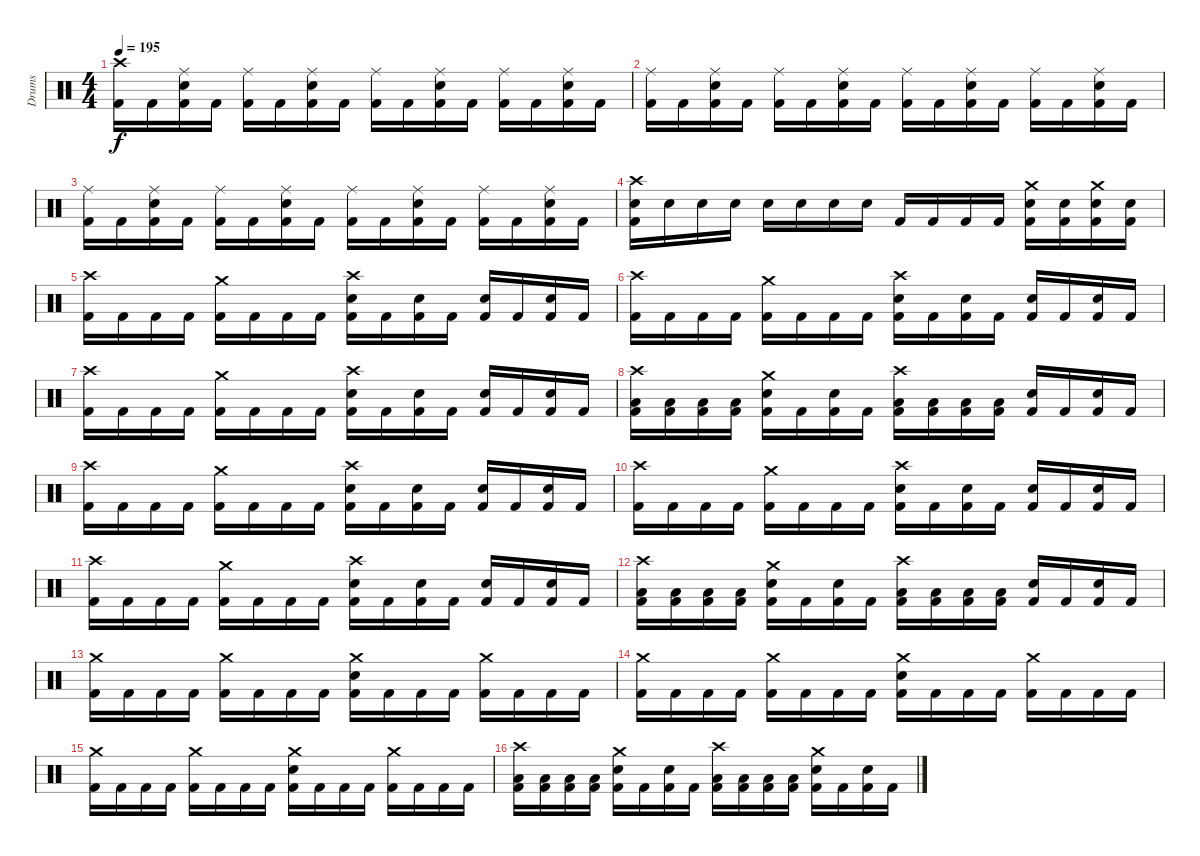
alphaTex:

\track ("Drums" "Drums") {instrument percussion}
\staff {score}
\articulation defaults
\ts (4 4)
\tempo 195
\clef neutral
\ks c
("Crash high (hit)" "Kick (hit) 2").16{dy f} "Kick (hit) 2".16 ("Ride (middle)" "Kick (hit) 2" "Electric Snare (hit)").16 "Kick (hit) 2".16 ("Ride (middle)" "Kick (hit) 2").16 "Kick (hit) 2".16 ("Ride (middle)" "Kick (hit) 2" "Electric Snare (hit)").16 "Kick (hit) 2".16 ("Ride (middle)" "Kick (hit) 2").16 "Kick (hit) 2".16 ("Ride (middle)" "Kick (hit) 2" "Electric Snare (hit)").16 "Kick (hit) 2".16 ("Ride (middle)" "Kick (hit) 2").16 "Kick (hit) 2".16 ("Ride (middle)" "Kick (hit) 2" "Electric Snare (hit)").16 "Kick (hit) 2".16 |
("Ride (middle)" "Kick (hit) 2").16 "Kick (hit) 2".16 ("Ride (middle)" "Kick (hit) 2" "Electric Snare (hit)").16 "Kick (hit) 2".16 ("Ride (middle)" "Kick (hit) 2").16 "Kick (hit) 2".16 ("Ride (middle)" "Kick (hit) 2" "Electric Snare (hit)").16 "Kick (hit) 2".16 ("Ride (middle)" "Kick (hit) 2").16 "Kick (hit) 2".16 ("Ride (middle)" "Kick (hit) 2" "Electric Snare (hit)").16 "Kick (hit) 2".16 ("Ride (middle)" "Kick (hit) 2").16 "Kick (hit) 2".16 ("Ride (middle)" "Kick (hit) 2" "Electric Snare (hit)").16 "Kick (hit) 2".16 |
("Ride (middle)" "Kick (hit) 2").16 "Kick (hit) 2".16 ("Ride (middle)" "Kick (hit) 2" "Electric Snare (hit)").16 "Kick (hit) 2".16 ("Ride (middle)" "Kick (hit) 2").16 "Kick (hit) 2".16 ("Ride (middle)" "Kick (hit) 2" "Electric Snare (hit)").16 "Kick (hit) 2".16 ("Ride (middle)" "Kick (hit) 2").16 "Kick (hit) 2".16 ("Ride (middle)" "Kick (hit) 2" "Electric Snare (hit)").16 "Kick (hit) 2".16 ("Ride (middle)" "Kick (hit) 2").16 "Kick (hit) 2".16 ("Ride (middle)" "Kick (hit) 2" "Electric Snare (hit)").16 "Kick (hit) 2".16 |
("Crash high (hit)" "Electric Snare (hit)" "Kick (hit) 2").16 "Electric Snare (hit)".16 "Electric Snare (hit)".16 "Electric Snare (hit)".16 "Electric Snare (hit)".16 "Electric Snare (hit)".16 "Electric Snare (hit)".16 "Electric Snare (hit)".16 "Kick (hit) 2".16 "Kick (hit) 2".16 "Kick (hit) 2".16 "Kick (hit) 2".16 ("Electric Snare (hit)" "Crash medium (hit)" "Kick (hit) 2").16 ("Electric Snare (hit)" "Kick (hit) 2").16 ("Electric Snare (hit)" "Crash medium (hit)" "Kick (hit) 2").16 ("Electric Snare (hit)" "Kick (hit) 2").16 |
("Crash high (hit)" "Kick (hit) 2").16 "Kick (hit) 2".16 "Kick (hit) 2".16 "Kick (hit) 2".16 ("Crash medium (hit)" "Kick (hit) 2").16 "Kick (hit) 2".16 "Kick (hit) 2".16 "Kick (hit) 2".16 ("Crash high (hit)" "Kick (hit) 2" "Electric Snare (hit)").16 "Kick (hit) 2".16 ("Kick (hit) 2" "Electric Snare (hit)").16 "Kick (hit) 2".16 ("Kick (hit) 2" "Electric Snare (hit)").16 "Kick (hit) 2".16 ("Kick (hit) 2" "Electric Snare (hit)").16 "Kick (hit) 2".16 |
("Crash high (hit)" "Kick (hit) 2").16 "Kick (hit) 2".16 "Kick (hit) 2".16 "Kick (hit) 2".16 ("Crash medium (hit)" "Kick (hit) 2").16 "Kick (hit) 2".16 "Kick (hit) 2".16 "Kick (hit) 2".16 ("Crash high (hit)" "Kick (hit) 2" "Electric Snare (hit)").16 "Kick (hit) 2".16 ("Kick (hit) 2" "Electric Snare (hit)").16 "Kick (hit) 2".16 ("Kick (hit) 2" "Electric Snare (hit)").16 "Kick (hit) 2".16 ("Kick (hit) 2" "Electric Snare (hit)").16 "Kick (hit) 2".16 |
("Crash high (hit)" "Kick (hit) 2").16 "Kick (hit) 2".16 "Kick (hit) 2".16 "Kick (hit) 2".16 ("Crash medium (hit)" "Kick (hit) 2").16 "Kick (hit) 2".16 "Kick (hit) 2".16 "Kick (hit) 2".16 ("Crash high (hit)" "Kick (hit) 2" "Electric Snare (hit)").16 "Kick (hit) 2".16 ("Kick (hit) 2" "Electric Snare (hit)").16 "Kick (hit) 2".16 ("Kick (hit) 2" "Electric Snare (hit)").16 "Kick (hit) 2".16 ("Kick (hit) 2" "Electric Snare (hit)").16 "Kick (hit) 2".16 |
("Crash high (hit)" "Kick (hit) 2" "Low Tom (hit)").16 ("Kick (hit) 2" "Low Tom (hit)").16 ("Kick (hit) 2" "Low Tom (hit)").16 ("Kick (hit) 2" "Low Tom (hit)").16 ("Crash medium (hit)" "Kick (hit) 2" "Electric Snare (hit)").16 "Kick (hit) 2".16 ("Kick (hit) 2" "Electric Snare (hit)").16 "Kick (hit) 2".16 ("Crash high (hit)" "Kick (hit) 2" "Low Floor Tom (hit)").16 ("Kick (hit) 2" "Low Floor Tom (hit)").16 ("Kick (hit) 2" "Low Floor Tom (hit)").16 ("Kick (hit) 2" "Low Floor Tom (hit)").16 ("Kick (hit) 2" "Electric Snare (hit)").16 "Kick (hit) 2".16 ("Kick (hit) 2" "Electric Snare (hit)").16 "Kick (hit) 2".16 |
("Crash high (hit)" "Kick (hit) 2").16 "Kick (hit) 2".16 "Kick (hit) 2".16 "Kick (hit) 2".16 ("Crash medium (hit)" "Kick (hit) 2").16 "Kick (hit) 2".16 "Kick (hit) 2".16 "Kick (hit) 2".16 ("Crash high (hit)" "Kick (hit) 2" "Electric Snare (hit)").16 "Kick (hit) 2".16 ("Kick (hit) 2" "Electric Snare (hit)").16 "Kick (hit) 2".16 ("Kick (hit) 2" "Electric Snare (hit)").16 "Kick (hit) 2".16 ("Kick (hit) 2" "Electric Snare (hit)").16 "Kick (hit) 2".16 |
("Crash high (hit)" "Kick (hit) 2").16 "Kick (hit) 2".16 "Kick (hit) 2".16 "Kick (hit) 2".16 ("Crash medium (hit)" "Kick (hit) 2").16 "Kick (hit) 2".16 "Kick (hit) 2".16 "Kick (hit) 2".16 ("Crash high (hit)" "Kick (hit) 2" "Electric Snare (hit)").16 "Kick (hit) 2".16 ("Kick (hit) 2" "Electric Snare (hit)").16 "Kick (hit) 2".16 ("Kick (hit) 2" "Electric Snare (hit)").16 "Kick (hit) 2".16 ("Kick (hit) 2" "Electric Snare (hit)").16 "Kick (hit) 2".16 |
("Crash high (hit)" "Kick (hit) 2").16 "Kick (hit) 2".16 "Kick (hit) 2".16 "Kick (hit) 2".16 ("Crash medium (hit)" "Kick (hit) 2").16 "Kick (hit) 2".16 "Kick (hit) 2".16 "Kick (hit) 2".16 ("Crash high (hit)" "Kick (hit) 2" "Electric Snare (hit)").16 "Kick (hit) 2".16 ("Kick (hit) 2" "Electric Snare (hit)").16 "Kick (hit) 2".16 ("Kick (hit) 2" "Electric Snare (hit)").16 "Kick (hit) 2".16 ("Kick (hit) 2" "Electric Snare (hit)").16 "Kick (hit) 2".16 |
("Crash high (hit)" "Kick (hit) 2" "Low Tom (hit)").16 ("Kick (hit) 2" "Low Tom (hit)").16 ("Kick (hit) 2" "Low Tom (hit)").16 ("Kick (hit) 2" "Low Tom (hit)").16 ("Crash medium (hit)" "Kick (hit) 2" "Electric Snare (hit)").16 "Kick (hit) 2".16 ("Kick (hit) 2" "Electric Snare (hit)").16 "Kick (hit) 2".16 ("Crash high (hit)" "Kick (hit) 2" "Low Floor Tom (hit)").16 ("Kick (hit) 2" "Low Floor Tom (hit)").16 ("Kick (hit) 2" "Low Floor Tom (hit)").16 ("Kick (hit) 2" "Low Floor Tom (hit)").16 ("Kick (hit) 2" "Electric Snare (hit)").16 "Kick (hit) 2".16 ("Kick (hit) 2" "Electric Snare (hit)").16 "Kick (hit) 2".16 |
("Crash medium (hit)" "Kick (hit) 2").16 "Kick (hit) 2".16 "Kick (hit) 2".16 "Kick (hit) 2".16 ("Crash medium (hit)" "Kick (hit) 2").16 "Kick (hit) 2".16 "Kick (hit) 2".16 "Kick (hit) 2".16 ("Crash medium (hit)" "Kick (hit) 2" "Electric Snare (hit)").16 "Kick (hit) 2".16 "Kick (hit) 2".16 "Kick (hit) 2".16 ("Crash medium (hit)" "Kick (hit) 2").16 "Kick (hit) 2".16 "Kick (hit) 2".16 "Kick (hit) 2".16 |
("Crash medium (hit)" "Kick (hit) 2").16 "Kick (hit) 2".16 "Kick (hit) 2".16 "Kick (hit) 2".16 ("Crash medium (hit)" "Kick (hit) 2").16 "Kick (hit) 2".16 "Kick (hit) 2".16 "Kick (hit) 2".16 ("Crash medium (hit)" "Kick (hit) 2" "Electric Snare (hit)").16 "Kick (hit) 2".16 "Kick (hit) 2".16 "Kick (hit) 2".16 ("Crash medium (hit)" "Kick (hit) 2").16 "Kick (hit) 2".16 "Kick (hit) 2".16 "Kick (hit) 2".16 |
("Crash medium (hit)" "Kick (hit) 2").16 "Kick (hit) 2".16 "Kick (hit) 2".16 "Kick (hit) 2".16 ("Crash medium (hit)" "Kick (hit) 2").16 "Kick (hit) 2".16 "Kick (hit) 2".16 "Kick (hit) 2".16 ("Crash medium (hit)" "Kick (hit) 2" "Electric Snare (hit)").16 "Kick (hit) 2".16 "Kick (hit) 2".16 "Kick (hit) 2".16 ("Crash medium (hit)" "Kick (hit) 2").16 "Kick (hit) 2".16 "Kick (hit) 2".16 "Kick (hit) 2".16 |
("Crash high (hit)" "Kick (hit) 2" "Low Tom (hit)").16 ("Kick (hit) 2" "Low Tom (hit)").16 ("Kick (hit) 2" "Low Tom (hit)").16 ("Kick (hit) 2" "Low Tom (hit)").16 ("Crash medium (hit)" "Kick (hit) 2" "Electric Snare (hit)").16 "Kick (hit) 2".16 ("Kick (hit) 2" "Electric Snare (hit)").16 "Kick (hit) 2".16 ("Crash high (hit)" "Kick (hit) 2" "Low Floor Tom (hit)").16 ("Kick (hit) 2" "Low Floor Tom (hit)").16 ("Kick (hit) 2" "Low Floor Tom (hit)").16 ("Kick (hit) 2" "Low Floor Tom (hit)").16 ("Crash medium (hit)" "Kick (hit) 2" "Electric Snare (hit)").16 "Kick (hit) 2".16 ("Kick (hit) 2" "Electric Snare (hit)").16 "Kick (hit) 2".16
